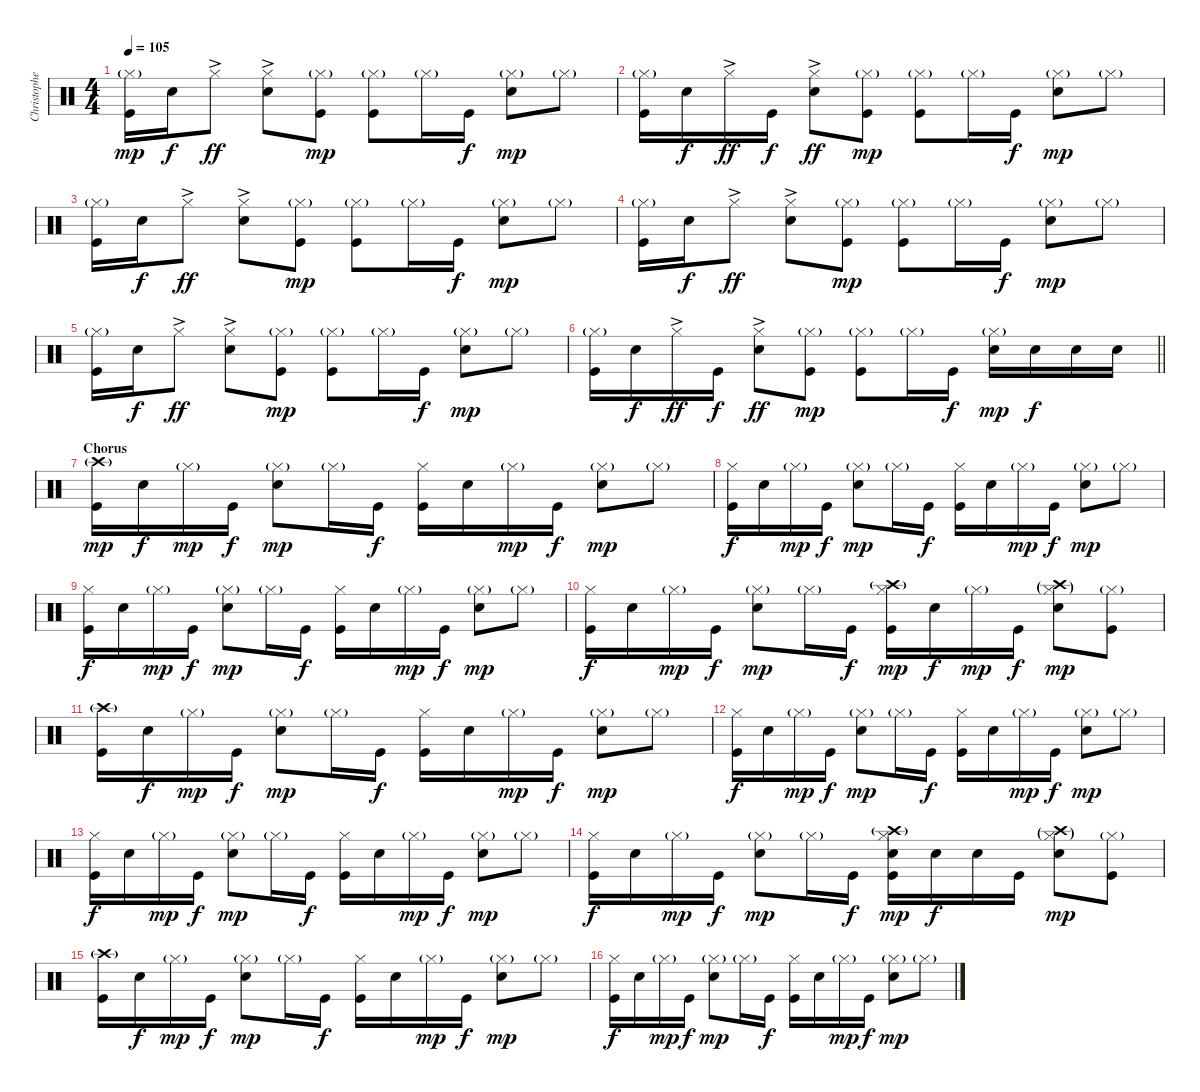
\track ("Christopher - Drums" "Christophe") {mute instrument percussion}
\staff {score}
\articulation defaults
\ts (4 4)
\tempo 105
\clef neutral
\ks c
("Hi-Hat (closed)"{g} "Kick (hit)").16{dy mp} "Snare (hit) 2".16{dy f} "Hi-Hat (closed)"{ac}.8{dy ff} ("Hi-Hat (closed)"{ac} "Snare (hit) 2").8 ("Hi-Hat (closed)"{g} "Kick (hit)").8{dy mp} ("Hi-Hat (closed)"{g} "Kick (hit)").8 "Hi-Hat (closed)"{g}.16 "Kick (hit)".16{dy f} ("Hi-Hat (closed)"{g} "Snare (hit) 2").8{dy mp} "Hi-Hat (closed)"{g}.8 |
("Hi-Hat (closed)"{g} "Kick (hit)").16 "Snare (hit) 2".16{dy f} "Hi-Hat (closed)"{ac}.16{dy ff} "Kick (hit)".16{dy f} ("Hi-Hat (closed)"{ac} "Snare (hit) 2").8{dy ff} ("Hi-Hat (closed)"{g} "Kick (hit)").8{dy mp} ("Hi-Hat (closed)"{g} "Kick (hit)").8 "Hi-Hat (closed)"{g}.16 "Kick (hit)".16{dy f} ("Hi-Hat (closed)"{g} "Snare (hit) 2").8{dy mp} "Hi-Hat (closed)"{g}.8 |
("Hi-Hat (closed)"{g} "Kick (hit)").16 "Snare (hit) 2".16{dy f} "Hi-Hat (closed)"{ac}.8{dy ff} ("Hi-Hat (closed)"{ac} "Snare (hit) 2").8 ("Hi-Hat (closed)"{g} "Kick (hit)").8{dy mp} ("Hi-Hat (closed)"{g} "Kick (hit)").8 "Hi-Hat (closed)"{g}.16 "Kick (hit)".16{dy f} ("Hi-Hat (closed)"{g} "Snare (hit) 2").8{dy mp} "Hi-Hat (closed)"{g}.8 |
("Hi-Hat (closed)"{g} "Kick (hit)").16 "Snare (hit) 2".16{dy f} "Hi-Hat (closed)"{ac}.8{dy ff} ("Hi-Hat (closed)"{ac} "Snare (hit) 2").8 ("Hi-Hat (closed)"{g} "Kick (hit)").8{dy mp} ("Hi-Hat (closed)"{g} "Kick (hit)").8 "Hi-Hat (closed)"{g}.16 "Kick (hit)".16{dy f} ("Hi-Hat (closed)"{g} "Snare (hit) 2").8{dy mp} "Hi-Hat (closed)"{g}.8 |
("Hi-Hat (closed)"{g} "Kick (hit)").16 "Snare (hit) 2".16{dy f} "Hi-Hat (closed)"{ac}.8{dy ff} ("Hi-Hat (closed)"{ac} "Snare (hit) 2").8 ("Hi-Hat (closed)"{g} "Kick (hit)").8{dy mp} ("Hi-Hat (closed)"{g} "Kick (hit)").8 "Hi-Hat (closed)"{g}.16 "Kick (hit)".16{dy f} ("Hi-Hat (closed)"{g} "Snare (hit) 2").8{dy mp} "Hi-Hat (closed)"{g}.8 |
\barLineRight lightlight
("Hi-Hat (closed)"{g} "Kick (hit)").16 "Snare (hit) 2".16{dy f} "Hi-Hat (closed)"{ac}.16{dy ff} "Kick (hit)".16{dy f} ("Hi-Hat (closed)"{ac} "Snare (hit) 2").8{dy ff} ("Hi-Hat (closed)"{g} "Kick (hit)").8{dy mp} ("Hi-Hat (closed)"{g} "Kick (hit)").8 "Hi-Hat (closed)"{g}.16 "Kick (hit)".16{dy f} ("Hi-Hat (closed)"{g} "Snare (hit) 2").16{dy mp} "Snare (hit) 2".16{dy f} "Snare (hit) 2".16 "Snare (hit) 2".16 |
\section ("" "Chorus")
("Crash high (hit)"{g} "Kick (hit)").16{dy mp} "Snare (hit) 2".16{dy f} "Hi-Hat (closed)"{g}.16{dy mp} "Kick (hit)".16{dy f} ("Hi-Hat (closed)"{g} "Snare (hit) 2").8{dy mp} "Hi-Hat (closed)"{g}.16 "Kick (hit)".16{dy f} ("Hi-Hat (closed)" "Kick (hit)").16 "Snare (hit) 2".16 "Hi-Hat (closed)"{g}.16{dy mp} "Kick (hit)".16{dy f} ("Hi-Hat (closed)"{g} "Snare (hit) 2").8{dy mp} "Hi-Hat (closed)"{g}.8 |
("Hi-Hat (closed)" "Kick (hit)").16{dy f} "Snare (hit) 2".16 "Hi-Hat (closed)"{g}.16{dy mp} "Kick (hit)".16{dy f} ("Hi-Hat (closed)"{g} "Snare (hit) 2").8{dy mp} "Hi-Hat (closed)"{g}.16 "Kick (hit)".16{dy f} ("Hi-Hat (closed)" "Kick (hit)").16 "Snare (hit) 2".16 "Hi-Hat (closed)"{g}.16{dy mp} "Kick (hit)".16{dy f} ("Hi-Hat (closed)"{g} "Snare (hit) 2").8{dy mp} "Hi-Hat (closed)"{g}.8 |
("Hi-Hat (closed)" "Kick (hit)").16{dy f} "Snare (hit) 2".16 "Hi-Hat (closed)"{g}.16{dy mp} "Kick (hit)".16{dy f} ("Hi-Hat (closed)"{g} "Snare (hit) 2").8{dy mp} "Hi-Hat (closed)"{g}.16 "Kick (hit)".16{dy f} ("Hi-Hat (closed)" "Kick (hit)").16 "Snare (hit) 2".16 "Hi-Hat (closed)"{g}.16{dy mp} "Kick (hit)".16{dy f} ("Hi-Hat (closed)"{g} "Snare (hit) 2").8{dy mp} "Hi-Hat (closed)"{g}.8 |
("Hi-Hat (closed)" "Kick (hit)").16{dy f} "Snare (hit) 2".16 "Hi-Hat (closed)"{g}.16{dy mp} "Kick (hit)".16{dy f} ("Hi-Hat (closed)"{g} "Snare (hit) 2").8{dy mp} "Hi-Hat (closed)"{g}.16 "Kick (hit)".16{dy f} ("Crash high (hit)"{g} "Hi-Hat (closed)" "Kick (hit)").16{dy mp} "Snare (hit) 2".16{dy f} "Hi-Hat (closed)"{g}.16{dy mp} "Kick (hit)".16{dy f} ("Crash high (hit)"{g} "Hi-Hat (closed)"{g} "Snare (hit) 2").8{dy mp} ("Hi-Hat (closed)"{g} "Kick (hit)").8 |
("Crash high (hit)"{g} "Kick (hit)").16 "Snare (hit) 2".16{dy f} "Hi-Hat (closed)"{g}.16{dy mp} "Kick (hit)".16{dy f} ("Hi-Hat (closed)"{g} "Snare (hit) 2").8{dy mp} "Hi-Hat (closed)"{g}.16 "Kick (hit)".16{dy f} ("Hi-Hat (closed)" "Kick (hit)").16 "Snare (hit) 2".16 "Hi-Hat (closed)"{g}.16{dy mp} "Kick (hit)".16{dy f} ("Hi-Hat (closed)"{g} "Snare (hit) 2").8{dy mp} "Hi-Hat (closed)"{g}.8 |
("Hi-Hat (closed)" "Kick (hit)").16{dy f} "Snare (hit) 2".16 "Hi-Hat (closed)"{g}.16{dy mp} "Kick (hit)".16{dy f} ("Hi-Hat (closed)"{g} "Snare (hit) 2").8{dy mp} "Hi-Hat (closed)"{g}.16 "Kick (hit)".16{dy f} ("Hi-Hat (closed)" "Kick (hit)").16 "Snare (hit) 2".16 "Hi-Hat (closed)"{g}.16{dy mp} "Kick (hit)".16{dy f} ("Hi-Hat (closed)"{g} "Snare (hit) 2").8{dy mp} "Hi-Hat (closed)"{g}.8 |
("Hi-Hat (closed)" "Kick (hit)").16{dy f} "Snare (hit) 2".16 "Hi-Hat (closed)"{g}.16{dy mp} "Kick (hit)".16{dy f} ("Hi-Hat (closed)"{g} "Snare (hit) 2").8{dy mp} "Hi-Hat (closed)"{g}.16 "Kick (hit)".16{dy f} ("Hi-Hat (closed)" "Kick (hit)").16 "Snare (hit) 2".16 "Hi-Hat (closed)"{g}.16{dy mp} "Kick (hit)".16{dy f} ("Hi-Hat (closed)"{g} "Snare (hit) 2").8{dy mp} "Hi-Hat (closed)"{g}.8 |
("Hi-Hat (closed)" "Kick (hit)").16{dy f} "Snare (hit) 2".16 "Hi-Hat (closed)"{g}.16{dy mp} "Kick (hit)".16{dy f} ("Hi-Hat (closed)"{g} "Snare (hit) 2").8{dy mp} "Hi-Hat (closed)"{g}.16 "Kick (hit)".16{dy f} ("Crash high (hit)"{g} "Hi-Hat (closed)" "Snare (hit) 2" "Kick (hit)").16{dy mp} "Snare (hit) 2".16{dy f} "Snare (hit) 2".16 "Kick (hit)".16 ("Crash high (hit)"{g} "Hi-Hat (closed)"{g} "Snare (hit) 2").8{dy mp} ("Hi-Hat (closed)"{g} "Kick (hit)").8 |
("Crash high (hit)"{g} "Kick (hit)").16 "Snare (hit) 2".16{dy f} "Hi-Hat (closed)"{g}.16{dy mp} "Kick (hit)".16{dy f} ("Hi-Hat (closed)"{g} "Snare (hit) 2").8{dy mp} "Hi-Hat (closed)"{g}.16 "Kick (hit)".16{dy f} ("Hi-Hat (closed)" "Kick (hit)").16 "Snare (hit) 2".16 "Hi-Hat (closed)"{g}.16{dy mp} "Kick (hit)".16{dy f} ("Hi-Hat (closed)"{g} "Snare (hit) 2").8{dy mp} "Hi-Hat (closed)"{g}.8 |
("Hi-Hat (closed)" "Kick (hit)").16{dy f} "Snare (hit) 2".16 "Hi-Hat (closed)"{g}.16{dy mp} "Kick (hit)".16{dy f} ("Hi-Hat (closed)"{g} "Snare (hit) 2").8{dy mp} "Hi-Hat (closed)"{g}.16 "Kick (hit)".16{dy f} ("Hi-Hat (closed)" "Kick (hit)").16 "Snare (hit) 2".16 "Hi-Hat (closed)"{g}.16{dy mp} "Kick (hit)".16{dy f} ("Hi-Hat (closed)"{g} "Snare (hit) 2").8{dy mp} "Hi-Hat (closed)"{g}.8
